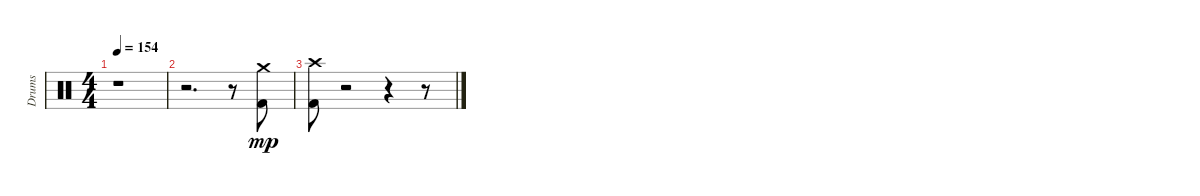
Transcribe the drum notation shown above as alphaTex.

\track ("Drums" "Drums") {instrument percussion}
\staff {score}
\articulation defaults
\ts (4 4)
\tempo 154
\clef neutral
\ks c
r.1{dy mp} |
r.2{d} r.8 ("Crash medium (hit)" "Kick (hit) 2").8 |
("Kick (hit) 2" "Crash high (hit)").8 r.2 r.4 r.8
